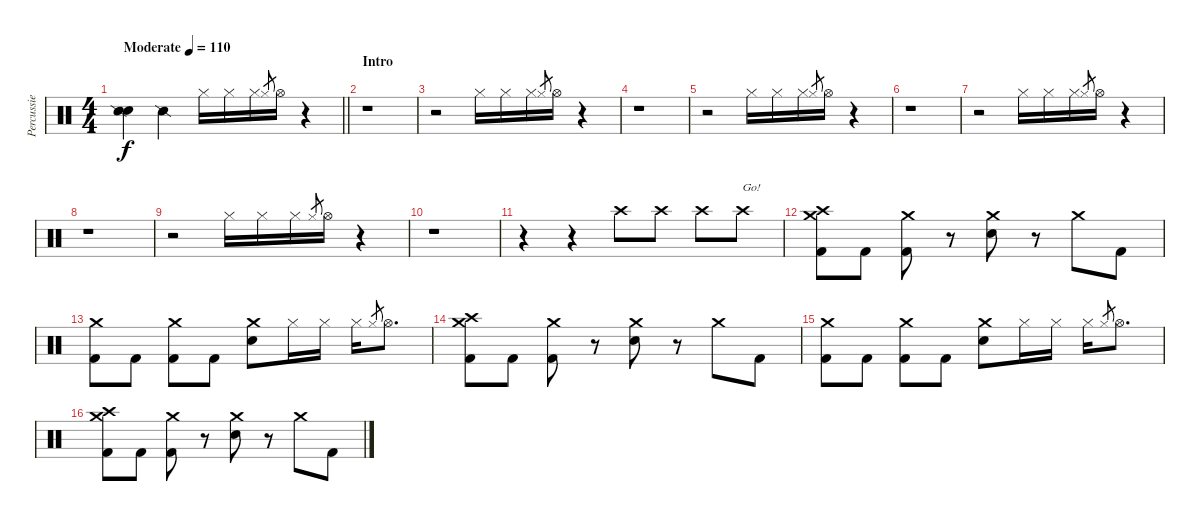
\track ("Percussie" "Percussie") {instrument percussion}
\staff {score}
\articulation defaults
\ts (4 4)
\tempo (110 "Moderate")
\clef neutral
\barLineRight lightlight
\ks c
("Snare (hit)" "Snare (side stick) 2").4{dy f} "Snare (side stick) 2".4 "Hi-Hat (closed)".16 "Hi-Hat (closed)".16 "Hi-Hat (closed)".16 "Hi-Hat (closed)"{sl x}.8{gr} "Hi-Hat (open)".16 r.4 |
\section ("" "Intro")
r.1 |
r.2 "Hi-Hat (closed)".16 "Hi-Hat (closed)".16 "Hi-Hat (closed)".16 "Hi-Hat (closed)"{sl x}.8{gr} "Hi-Hat (open)".16 r.4 |
r.1 |
r.2 "Hi-Hat (closed)".16 "Hi-Hat (closed)".16 "Hi-Hat (closed)".16 "Hi-Hat (closed)"{sl x}.8{gr} "Hi-Hat (open)".16 r.4 |
r.1 |
r.2 "Hi-Hat (closed)".16 "Hi-Hat (closed)".16 "Hi-Hat (closed)".16 "Hi-Hat (closed)"{sl x}.8{gr} "Hi-Hat (open)".16 r.4 |
r.1 |
r.2 "Hi-Hat (closed)".16 "Hi-Hat (closed)".16 "Hi-Hat (closed)".16 "Hi-Hat (closed)"{sl x}.8{gr} "Hi-Hat (open)".16 r.4 |
r.1 |
r.4 r.4 "Crash high (hit)".8 "Crash high (hit)".8 "Crash high (hit)".8 "Crash high (hit)".8{txt "Go!"} |
("Crash high (hit)" "Crash medium (hit)" "Kick (hit) 2").8 "Kick (hit) 2".8 ("Crash medium (hit)" "Kick (hit) 2").8 r.8 ("Crash medium (hit)" "Electric Snare (hit)").8 r.8 "Crash medium (hit)".8 "Kick (hit) 2".8 |
("Crash medium (hit)" "Kick (hit) 2").8 "Kick (hit) 2".8 ("Crash medium (hit)" "Kick (hit) 2").8 "Kick (hit) 2".8 ("Crash medium (hit)" "Electric Snare (hit)").8 "Hi-Hat (closed)".16 "Hi-Hat (closed)".16 "Hi-Hat (closed)".16 "Hi-Hat (closed)"{sl x}.8{gr} "Hi-Hat (open)".8{d} |
("Crash high (hit)" "Crash medium (hit)" "Kick (hit) 2").8 "Kick (hit) 2".8 ("Crash medium (hit)" "Kick (hit) 2").8 r.8 ("Crash medium (hit)" "Electric Snare (hit)").8 r.8 "Crash medium (hit)".8 "Kick (hit) 2".8 |
("Crash medium (hit)" "Kick (hit) 2").8 "Kick (hit) 2".8 ("Crash medium (hit)" "Kick (hit) 2").8 "Kick (hit) 2".8 ("Crash medium (hit)" "Electric Snare (hit)").8 "Hi-Hat (closed)".16 "Hi-Hat (closed)".16 "Hi-Hat (closed)".16 "Hi-Hat (closed)"{sl x}.8{gr} "Hi-Hat (open)".8{d} |
("Crash high (hit)" "Crash medium (hit)" "Kick (hit) 2").8 "Kick (hit) 2".8 ("Crash medium (hit)" "Kick (hit) 2").8 r.8 ("Crash medium (hit)" "Electric Snare (hit)").8 r.8 "Crash medium (hit)".8 "Kick (hit) 2".8
